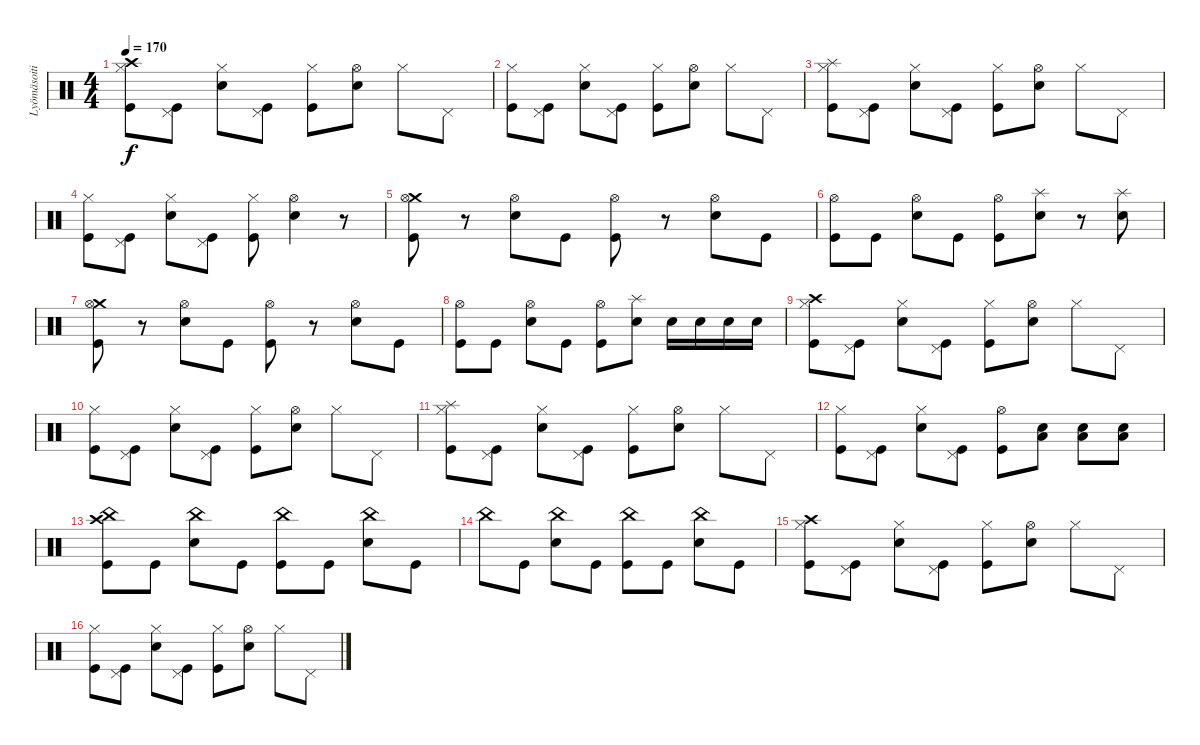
\track ("Lyömäsoitin" "Lyömäsoiti") {instrument percussion}
\staff {score}
\articulation defaults
\ts (4 4)
\tempo 170
\clef neutral
\ks c
("Crash high (hit)" "Hi-Hat (closed)" "Kick (hit)").8{dy f} ("Pedal Hi-Hat (hit)" "Kick (hit)").8 ("Hi-Hat (closed)" "Snare (hit) 2").8 ("Pedal Hi-Hat (hit)" "Kick (hit)").8 ("Hi-Hat (closed)" "Kick (hit)").8 ("Hi-Hat (open)" "Snare (hit) 2").8 "Hi-Hat (closed)".8 "Pedal Hi-Hat (hit)".8 |
("Hi-Hat (closed)" "Kick (hit)").8 ("Pedal Hi-Hat (hit)" "Kick (hit)").8 ("Hi-Hat (closed)" "Snare (hit) 2").8 ("Pedal Hi-Hat (hit)" "Kick (hit)").8 ("Hi-Hat (closed)" "Kick (hit)").8 ("Hi-Hat (open)" "Snare (hit) 2").8 "Hi-Hat (closed)".8 "Pedal Hi-Hat (hit)".8 |
("Splash (hit)" "Hi-Hat (closed)" "Kick (hit)").8 ("Pedal Hi-Hat (hit)" "Kick (hit)").8 ("Hi-Hat (closed)" "Snare (hit) 2").8 ("Pedal Hi-Hat (hit)" "Kick (hit)").8 ("Hi-Hat (closed)" "Kick (hit)").8 ("Hi-Hat (open)" "Snare (hit) 2").8 "Hi-Hat (closed)".8 "Pedal Hi-Hat (hit)".8 |
("Hi-Hat (closed)" "Kick (hit)").8 ("Pedal Hi-Hat (hit)" "Kick (hit)").8 ("Hi-Hat (closed)" "Snare (hit) 2").8 ("Pedal Hi-Hat (hit)" "Kick (hit)").8 ("Hi-Hat (closed)" "Kick (hit)").8 ("Hi-Hat (open)" "Snare (hit) 2").4 r.8 |
("Crash medium (hit)" "Hi-Hat (open)" "Kick (hit)").8 r.8 ("Hi-Hat (open)" "Snare (hit) 2").8 "Kick (hit)".8 ("Hi-Hat (open)" "Kick (hit)").8 r.8 ("Hi-Hat (open)" "Snare (hit) 2").8 "Kick (hit)".8 |
("Hi-Hat (open)" "Kick (hit)").8 "Kick (hit)".8 ("Hi-Hat (open)" "Snare (hit) 2").8 "Kick (hit)".8 ("Hi-Hat (open)" "Kick (hit)").8 ("Splash (hit)" "Snare (hit) 2").8 r.8 ("Splash (hit)" "Snare (hit) 2").8 |
("Crash medium (hit)" "Hi-Hat (open)" "Kick (hit)").8 r.8 ("Hi-Hat (open)" "Snare (hit) 2").8 "Kick (hit)".8 ("Hi-Hat (open)" "Kick (hit)").8 r.8 ("Hi-Hat (open)" "Snare (hit) 2").8 "Kick (hit)".8 |
("Hi-Hat (open)" "Kick (hit)").8 "Kick (hit)".8 ("Hi-Hat (open)" "Snare (hit) 2").8 "Kick (hit)".8 ("Hi-Hat (open)" "Kick (hit)").8 ("Splash (hit)" "Snare (hit) 2").8 "Snare (hit) 2".16 "Snare (hit) 2".16 "Snare (hit) 2".16 "Snare (hit) 2".16 |
("Crash high (hit)" "Hi-Hat (closed)" "Kick (hit)").8 ("Pedal Hi-Hat (hit)" "Kick (hit)").8 ("Hi-Hat (closed)" "Snare (hit) 2").8 ("Pedal Hi-Hat (hit)" "Kick (hit)").8 ("Hi-Hat (closed)" "Kick (hit)").8 ("Hi-Hat (open)" "Snare (hit) 2").8 "Hi-Hat (closed)".8 "Pedal Hi-Hat (hit)".8 |
("Hi-Hat (closed)" "Kick (hit)").8 ("Pedal Hi-Hat (hit)" "Kick (hit)").8 ("Hi-Hat (closed)" "Snare (hit) 2").8 ("Pedal Hi-Hat (hit)" "Kick (hit)").8 ("Hi-Hat (closed)" "Kick (hit)").8 ("Hi-Hat (open)" "Snare (hit) 2").8 "Hi-Hat (closed)".8 "Pedal Hi-Hat (hit)".8 |
("Splash (hit)" "Hi-Hat (closed)" "Kick (hit)").8 ("Pedal Hi-Hat (hit)" "Kick (hit)").8 ("Hi-Hat (closed)" "Snare (hit) 2").8 ("Pedal Hi-Hat (hit)" "Kick (hit)").8 ("Hi-Hat (closed)" "Kick (hit)").8 ("Hi-Hat (open)" "Snare (hit) 2").8 "Hi-Hat (closed)".8 "Pedal Hi-Hat (hit)".8 |
("Hi-Hat (closed)" "Kick (hit)").8 ("Pedal Hi-Hat (hit)" "Kick (hit)").8 ("Hi-Hat (closed)" "Snare (hit) 2").8 ("Pedal Hi-Hat (hit)" "Kick (hit)").8 ("Hi-Hat (open)" "Kick (hit)").8 ("Low Tom (hit)" "Snare (hit) 2").8 ("Low Tom (hit)" "Snare (hit) 2").8 ("Low Tom (hit)" "Snare (hit) 2").8 |
("Crash high (hit)" "China (hit)" "Kick (hit)").8 "Kick (hit)".8 ("China (hit)" "Snare (hit) 2").8 "Kick (hit)".8 ("China (hit)" "Kick (hit)").8 "Kick (hit)".8 ("China (hit)" "Snare (hit) 2").8 "Kick (hit)".8 |
"China (hit)".8 "Kick (hit)".8 ("China (hit)" "Snare (hit) 2").8 "Kick (hit)".8 ("China (hit)" "Kick (hit)").8 "Kick (hit)".8 ("China (hit)" "Snare (hit) 2").8 "Kick (hit)".8 |
("Crash high (hit)" "Hi-Hat (closed)" "Kick (hit)").8 ("Pedal Hi-Hat (hit)" "Kick (hit)").8 ("Hi-Hat (closed)" "Snare (hit) 2").8 ("Pedal Hi-Hat (hit)" "Kick (hit)").8 ("Hi-Hat (closed)" "Kick (hit)").8 ("Hi-Hat (open)" "Snare (hit) 2").8 "Hi-Hat (closed)".8 "Pedal Hi-Hat (hit)".8 |
("Hi-Hat (closed)" "Kick (hit)").8 ("Pedal Hi-Hat (hit)" "Kick (hit)").8 ("Hi-Hat (closed)" "Snare (hit) 2").8 ("Pedal Hi-Hat (hit)" "Kick (hit)").8 ("Hi-Hat (closed)" "Kick (hit)").8 ("Hi-Hat (open)" "Snare (hit) 2").8 "Hi-Hat (closed)".8 "Pedal Hi-Hat (hit)".8
